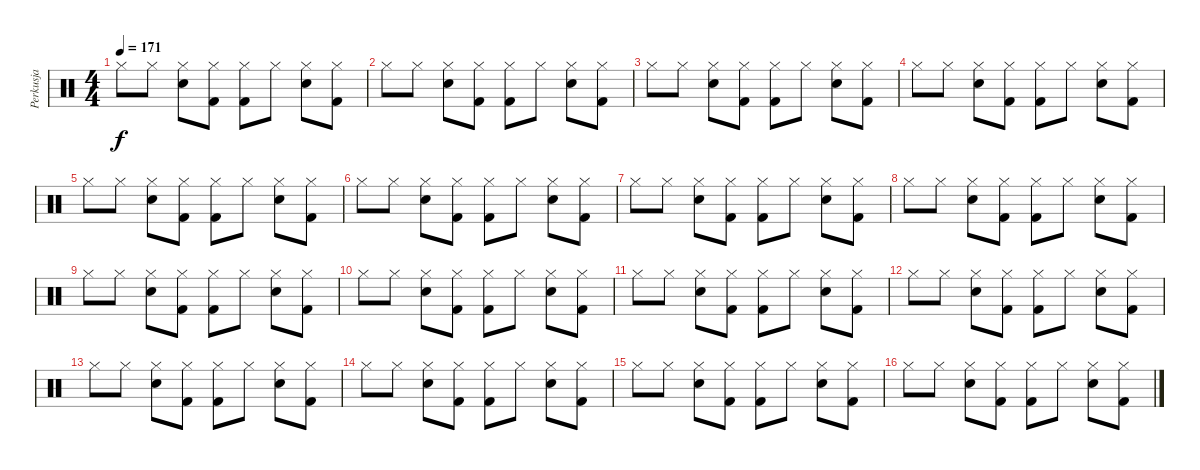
\track ("Perkusja" "Perkusja") {instrument percussion}
\staff {score}
\articulation defaults
\ts (4 4)
\tempo 171
\clef neutral
\ks c "Hi-Hat (closed)".8{dy f} "Hi-Hat (closed)".8
("Hi-Hat (closed)" "Snare (hit) 2").8 ("Hi-Hat (closed)" "Kick (hit) 2").8 ("Hi-Hat (closed)" "Kick (hit) 2").8 "Hi-Hat (closed)".8 ("Hi-Hat (closed)" "Snare (hit) 2").8 ("Hi-Hat (closed)" "Kick (hit) 2").8 |
"Hi-Hat (closed)".8 "Hi-Hat (closed)".8 ("Hi-Hat (closed)" "Snare (hit) 2").8 ("Hi-Hat (closed)" "Kick (hit) 2").8 ("Hi-Hat (closed)" "Kick (hit) 2").8 "Hi-Hat (closed)".8 ("Hi-Hat (closed)" "Snare (hit) 2").8 ("Hi-Hat (closed)" "Kick (hit) 2").8 |
"Hi-Hat (closed)".8 "Hi-Hat (closed)".8 ("Hi-Hat (closed)" "Snare (hit) 2").8 ("Hi-Hat (closed)" "Kick (hit) 2").8 ("Hi-Hat (closed)" "Kick (hit) 2").8 "Hi-Hat (closed)".8 ("Hi-Hat (closed)" "Snare (hit) 2").8 ("Hi-Hat (closed)" "Kick (hit) 2").8 |
"Hi-Hat (closed)".8 "Hi-Hat (closed)".8 ("Hi-Hat (closed)" "Snare (hit) 2").8 ("Hi-Hat (closed)" "Kick (hit) 2").8 ("Hi-Hat (closed)" "Kick (hit) 2").8 "Hi-Hat (closed)".8 ("Hi-Hat (closed)" "Snare (hit) 2").8 ("Hi-Hat (closed)" "Kick (hit) 2").8 |
"Hi-Hat (closed)".8 "Hi-Hat (closed)".8 ("Hi-Hat (closed)" "Snare (hit) 2").8 ("Hi-Hat (closed)" "Kick (hit) 2").8 ("Hi-Hat (closed)" "Kick (hit) 2").8 "Hi-Hat (closed)".8 ("Hi-Hat (closed)" "Snare (hit) 2").8 ("Hi-Hat (closed)" "Kick (hit) 2").8 |
"Hi-Hat (closed)".8 "Hi-Hat (closed)".8 ("Hi-Hat (closed)" "Snare (hit) 2").8 ("Hi-Hat (closed)" "Kick (hit) 2").8 ("Hi-Hat (closed)" "Kick (hit) 2").8 "Hi-Hat (closed)".8 ("Hi-Hat (closed)" "Snare (hit) 2").8 ("Hi-Hat (closed)" "Kick (hit) 2").8 |
"Hi-Hat (closed)".8 "Hi-Hat (closed)".8 ("Hi-Hat (closed)" "Snare (hit) 2").8 ("Hi-Hat (closed)" "Kick (hit) 2").8 ("Hi-Hat (closed)" "Kick (hit) 2").8 "Hi-Hat (closed)".8 ("Hi-Hat (closed)" "Snare (hit) 2").8 ("Hi-Hat (closed)" "Kick (hit) 2").8 |
"Hi-Hat (closed)".8 "Hi-Hat (closed)".8 ("Hi-Hat (closed)" "Snare (hit) 2").8 ("Hi-Hat (closed)" "Kick (hit) 2").8 ("Hi-Hat (closed)" "Kick (hit) 2").8 "Hi-Hat (closed)".8 ("Hi-Hat (closed)" "Snare (hit) 2").8 ("Hi-Hat (closed)" "Kick (hit) 2").8 |
"Hi-Hat (closed)".8 "Hi-Hat (closed)".8 ("Hi-Hat (closed)" "Snare (hit) 2").8 ("Hi-Hat (closed)" "Kick (hit) 2").8 ("Hi-Hat (closed)" "Kick (hit) 2").8 "Hi-Hat (closed)".8 ("Hi-Hat (closed)" "Snare (hit) 2").8 ("Hi-Hat (closed)" "Kick (hit) 2").8 |
"Hi-Hat (closed)".8 "Hi-Hat (closed)".8 ("Hi-Hat (closed)" "Snare (hit) 2").8 ("Hi-Hat (closed)" "Kick (hit) 2").8 ("Hi-Hat (closed)" "Kick (hit) 2").8 "Hi-Hat (closed)".8 ("Hi-Hat (closed)" "Snare (hit) 2").8 ("Hi-Hat (closed)" "Kick (hit) 2").8 |
"Hi-Hat (closed)".8 "Hi-Hat (closed)".8 ("Hi-Hat (closed)" "Snare (hit) 2").8 ("Hi-Hat (closed)" "Kick (hit) 2").8 ("Hi-Hat (closed)" "Kick (hit) 2").8 "Hi-Hat (closed)".8 ("Hi-Hat (closed)" "Snare (hit) 2").8 ("Hi-Hat (closed)" "Kick (hit) 2").8 |
"Hi-Hat (closed)".8 "Hi-Hat (closed)".8 ("Hi-Hat (closed)" "Snare (hit) 2").8 ("Hi-Hat (closed)" "Kick (hit) 2").8 ("Hi-Hat (closed)" "Kick (hit) 2").8 "Hi-Hat (closed)".8 ("Hi-Hat (closed)" "Snare (hit) 2").8 ("Hi-Hat (closed)" "Kick (hit) 2").8 |
"Hi-Hat (closed)".8 "Hi-Hat (closed)".8 ("Hi-Hat (closed)" "Snare (hit) 2").8 ("Hi-Hat (closed)" "Kick (hit) 2").8 ("Hi-Hat (closed)" "Kick (hit) 2").8 "Hi-Hat (closed)".8 ("Hi-Hat (closed)" "Snare (hit) 2").8 ("Hi-Hat (closed)" "Kick (hit) 2").8 |
"Hi-Hat (closed)".8 "Hi-Hat (closed)".8 ("Hi-Hat (closed)" "Snare (hit) 2").8 ("Hi-Hat (closed)" "Kick (hit) 2").8 ("Hi-Hat (closed)" "Kick (hit) 2").8 "Hi-Hat (closed)".8 ("Hi-Hat (closed)" "Snare (hit) 2").8 ("Hi-Hat (closed)" "Kick (hit) 2").8 |
"Hi-Hat (closed)".8 "Hi-Hat (closed)".8 ("Hi-Hat (closed)" "Snare (hit) 2").8 ("Hi-Hat (closed)" "Kick (hit) 2").8 ("Hi-Hat (closed)" "Kick (hit) 2").8 "Hi-Hat (closed)".8 ("Hi-Hat (closed)" "Snare (hit) 2").8 ("Hi-Hat (closed)" "Kick (hit) 2").8 |
"Hi-Hat (closed)".8 "Hi-Hat (closed)".8 ("Hi-Hat (closed)" "Snare (hit) 2").8 ("Hi-Hat (closed)" "Kick (hit) 2").8 ("Hi-Hat (closed)" "Kick (hit) 2").8 "Hi-Hat (closed)".8 ("Hi-Hat (closed)" "Snare (hit) 2").8 ("Hi-Hat (closed)" "Kick (hit) 2").8
